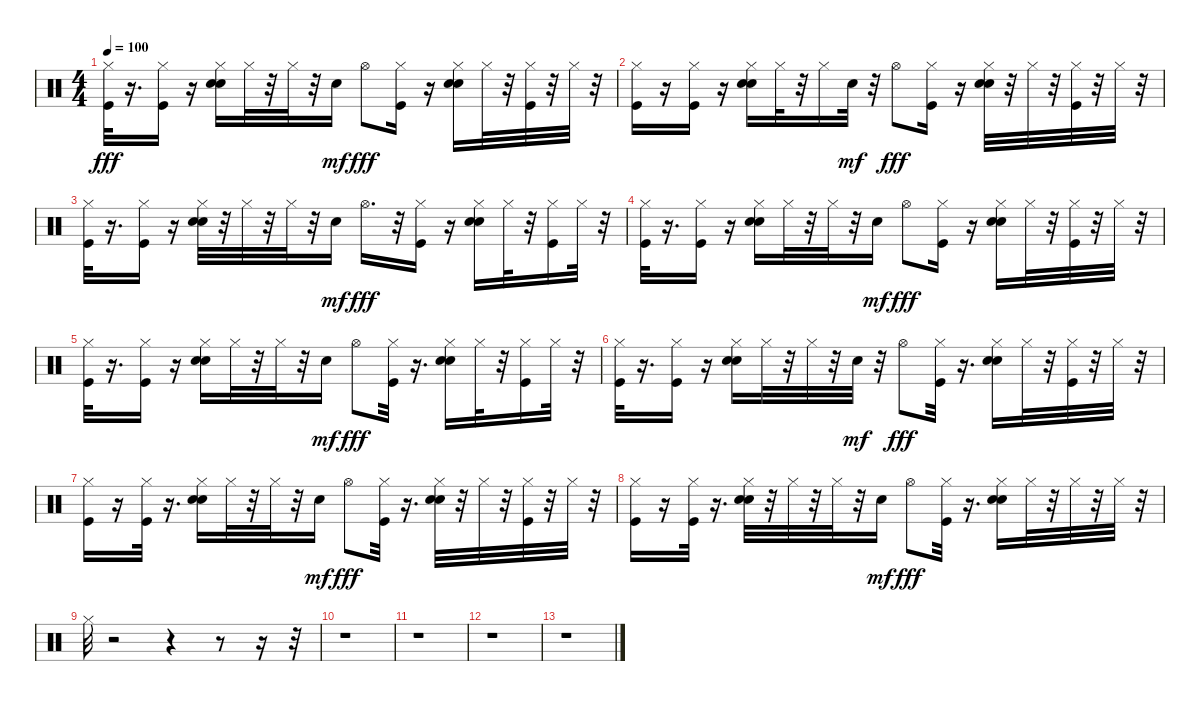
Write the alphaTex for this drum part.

\track "" {instrument percussion}
\staff {score}
\articulation defaults
\ts (4 4)
\tempo 100
\clef neutral
\ks c
("Hi-Hat (closed)" "Kick (hit)").32{dy fff} r.16{d} ("Hi-Hat (closed)" "Kick (hit)").16 r.16 ("Hi-Hat (closed)" "Hand Clap (hit)" "Snare (hit) 2").16 "Hi-Hat (closed)".32 r.32 "Hi-Hat (closed)".32 r.32 "Electric Snare (hit)".16{dy mf} "Hi-Hat (open)".8{dy fff} ("Hi-Hat (closed)" "Kick (hit)").16 r.16 ("Hi-Hat (closed)" "Hand Clap (hit)" "Snare (hit) 2").16 "Hi-Hat (closed)".32 r.32 ("Hi-Hat (closed)" "Kick (hit)").32 r.32 "Hi-Hat (closed)".32 r.32 |
("Hi-Hat (closed)" "Kick (hit)").16 r.16 ("Hi-Hat (closed)" "Kick (hit)").16 r.16 ("Hi-Hat (closed)" "Hand Clap (hit)" "Snare (hit) 2").16 "Hi-Hat (closed)".32 r.32 "Hi-Hat (closed)".16 "Electric Snare (hit)".32{dy mf} r.32 "Hi-Hat (open)".8{dy fff} ("Hi-Hat (closed)" "Kick (hit)").16 r.16 ("Hi-Hat (closed)" "Hand Clap (hit)" "Snare (hit) 2").32 r.32 "Hi-Hat (closed)".32 r.32 ("Hi-Hat (closed)" "Kick (hit)").32 r.32 "Hi-Hat (closed)".32 r.32 |
("Hi-Hat (closed)" "Kick (hit)").32 r.16{d} ("Hi-Hat (closed)" "Kick (hit)").16 r.16 ("Hi-Hat (closed)" "Hand Clap (hit)" "Snare (hit) 2").32 r.32 "Hi-Hat (closed)".32 r.32 "Hi-Hat (closed)".32 r.32 "Electric Snare (hit)".16{dy mf} "Hi-Hat (open)".16{d dy fff} r.32 ("Hi-Hat (closed)" "Kick (hit)").16 r.16 ("Hi-Hat (closed)" "Hand Clap (hit)" "Snare (hit) 2").16 "Hi-Hat (closed)".32 r.32 ("Hi-Hat (closed)" "Kick (hit)").16 "Hi-Hat (closed)".32 r.32 |
("Hi-Hat (closed)" "Kick (hit)").32 r.16{d} ("Hi-Hat (closed)" "Kick (hit)").16 r.16 ("Hi-Hat (closed)" "Hand Clap (hit)" "Snare (hit) 2").16 "Hi-Hat (closed)".32 r.32 "Hi-Hat (closed)".32 r.32 "Electric Snare (hit)".16{dy mf} "Hi-Hat (open)".8{dy fff} ("Hi-Hat (closed)" "Kick (hit)").16 r.16 ("Hi-Hat (closed)" "Hand Clap (hit)" "Snare (hit) 2").16 "Hi-Hat (closed)".32 r.32 ("Hi-Hat (closed)" "Kick (hit)").32 r.32 "Hi-Hat (closed)".32 r.32 |
("Hi-Hat (closed)" "Kick (hit)").32 r.16{d} ("Hi-Hat (closed)" "Kick (hit)").16 r.16 ("Hi-Hat (closed)" "Hand Clap (hit)" "Snare (hit) 2").16 "Hi-Hat (closed)".32 r.32 "Hi-Hat (closed)".32 r.32 "Electric Snare (hit)".16{dy mf} "Hi-Hat (open)".8{dy fff} ("Hi-Hat (closed)" "Kick (hit)").32 r.16{d} ("Hi-Hat (closed)" "Hand Clap (hit)" "Snare (hit) 2").16 "Hi-Hat (closed)".32 r.32 ("Hi-Hat (closed)" "Kick (hit)").16 "Hi-Hat (closed)".32 r.32 |
("Hi-Hat (closed)" "Kick (hit)").32 r.16{d} ("Hi-Hat (closed)" "Kick (hit)").16 r.16 ("Hi-Hat (closed)" "Hand Clap (hit)" "Snare (hit) 2").16 "Hi-Hat (closed)".32 r.32 "Hi-Hat (closed)".32 r.32 "Electric Snare (hit)".32{dy mf} r.32 "Hi-Hat (open)".8{dy fff} ("Hi-Hat (closed)" "Kick (hit)").32 r.16{d} ("Hi-Hat (closed)" "Hand Clap (hit)" "Snare (hit) 2").16 "Hi-Hat (closed)".32 r.32 ("Hi-Hat (closed)" "Kick (hit)").32 r.32 "Hi-Hat (closed)".32 r.32 |
("Hi-Hat (closed)" "Kick (hit)").16 r.16 ("Hi-Hat (closed)" "Kick (hit)").32 r.16{d} ("Hi-Hat (closed)" "Hand Clap (hit)" "Snare (hit) 2").16 "Hi-Hat (closed)".32 r.32 "Hi-Hat (closed)".32 r.32 "Electric Snare (hit)".16{dy mf} "Hi-Hat (open)".8{dy fff} ("Hi-Hat (closed)" "Kick (hit)").32 r.16{d} ("Hi-Hat (closed)" "Hand Clap (hit)" "Snare (hit) 2").32 r.32 "Hi-Hat (closed)".32 r.32 ("Hi-Hat (closed)" "Kick (hit)").32 r.32 "Hi-Hat (closed)".32 r.32 |
("Hi-Hat (closed)" "Kick (hit)").16 r.16 ("Hi-Hat (closed)" "Kick (hit)").32 r.16{d} ("Hi-Hat (closed)" "Hand Clap (hit)" "Snare (hit) 2").32 r.32 "Hi-Hat (closed)".32 r.32 "Hi-Hat (closed)".32 r.32 "Electric Snare (hit)".16{dy mf} "Hi-Hat (open)".8{dy fff} ("Hi-Hat (closed)" "Kick (hit)").32 r.16{d} ("Hi-Hat (closed)" "Snare (hit) 2" "Hand Clap (hit)").16 "Hi-Hat (closed)".32 r.32 "Hi-Hat (closed)".32 r.32 "Hi-Hat (closed)".32 r.32 |
"Hi-Hat (closed)".32 r.2 r.4 r.8 r.16 r.32 |
r.1 |
r.1 |
r.1 |
r.1
